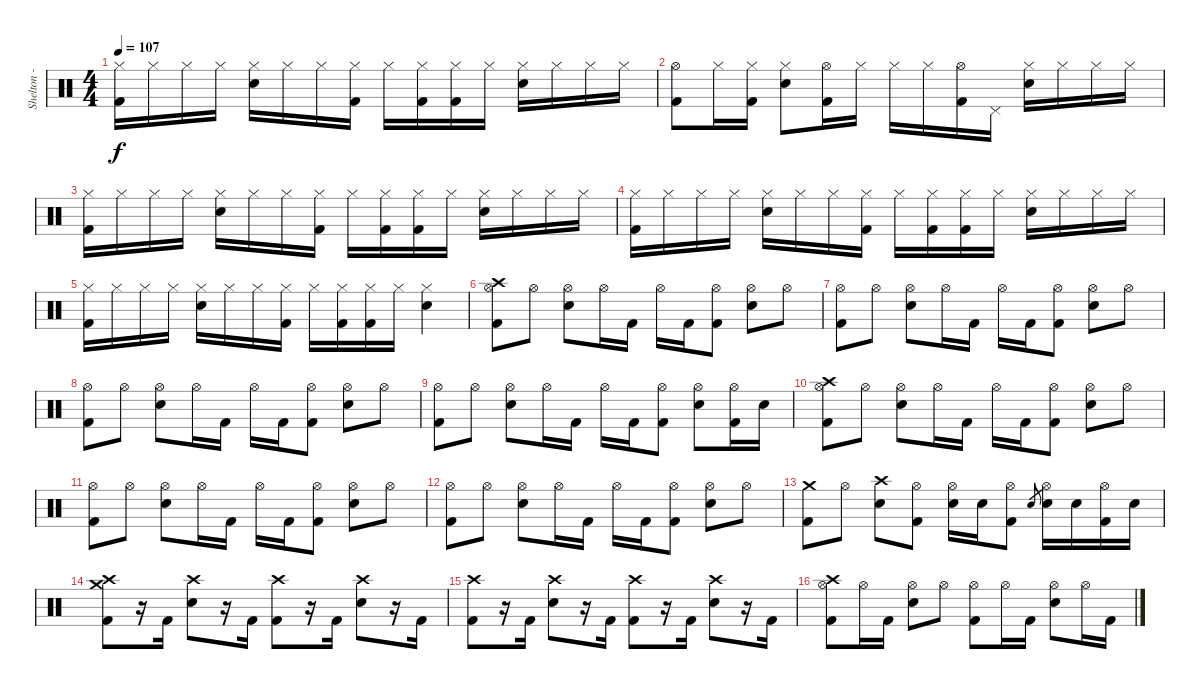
\track ("Shelton - Drums" "Shelton - ") {instrument percussion}
\staff {score}
\articulation defaults
\ts (4 4)
\tempo 107
\clef neutral
\ks c
("Hi-Hat (closed)" "Kick (hit) 2").16{dy f} "Hi-Hat (closed)".16 "Hi-Hat (closed)".16 "Hi-Hat (closed)".16 ("Hi-Hat (closed)" "Electric Snare (hit)").16 "Hi-Hat (closed)".16 "Hi-Hat (closed)".16 ("Hi-Hat (closed)" "Kick (hit) 2").16 "Hi-Hat (closed)".16 ("Hi-Hat (closed)" "Kick (hit) 2").16 ("Hi-Hat (closed)" "Kick (hit) 2").16 "Hi-Hat (closed)".16 ("Hi-Hat (closed)" "Electric Snare (hit)").16 "Hi-Hat (closed)".16 "Hi-Hat (closed)".16 "Hi-Hat (closed)".16 |
("Hi-Hat (open)" "Kick (hit) 2").8 "Hi-Hat (closed)".16 ("Hi-Hat (closed)" "Kick (hit) 2").16 ("Hi-Hat (closed)" "Electric Snare (hit)").8 ("Hi-Hat (open)" "Kick (hit) 2").16 "Hi-Hat (closed)".16 "Hi-Hat (closed)".16 "Hi-Hat (closed)".16 ("Hi-Hat (open)" "Kick (hit) 2").16 "Pedal Hi-Hat (hit)".16 ("Hi-Hat (closed)" "Electric Snare (hit)").16 "Hi-Hat (closed)".16 "Hi-Hat (closed)".16 "Hi-Hat (closed)".16 |
("Hi-Hat (closed)" "Kick (hit) 2").16 "Hi-Hat (closed)".16 "Hi-Hat (closed)".16 "Hi-Hat (closed)".16 ("Hi-Hat (closed)" "Electric Snare (hit)").16 "Hi-Hat (closed)".16 "Hi-Hat (closed)".16 ("Hi-Hat (closed)" "Kick (hit) 2").16 "Hi-Hat (closed)".16 ("Hi-Hat (closed)" "Kick (hit) 2").16 ("Hi-Hat (closed)" "Kick (hit) 2").16 "Hi-Hat (closed)".16 ("Hi-Hat (closed)" "Electric Snare (hit)").16 "Hi-Hat (closed)".16 "Hi-Hat (closed)".16 "Hi-Hat (closed)".16 |
("Hi-Hat (closed)" "Kick (hit) 2").16 "Hi-Hat (closed)".16 "Hi-Hat (closed)".16 "Hi-Hat (closed)".16 ("Hi-Hat (closed)" "Electric Snare (hit)").16 "Hi-Hat (closed)".16 "Hi-Hat (closed)".16 ("Hi-Hat (closed)" "Kick (hit) 2").16 "Hi-Hat (closed)".16 ("Hi-Hat (closed)" "Kick (hit) 2").16 ("Hi-Hat (closed)" "Kick (hit) 2").16 "Hi-Hat (closed)".16 ("Hi-Hat (closed)" "Electric Snare (hit)").16 "Hi-Hat (closed)".16 "Hi-Hat (closed)".16 "Hi-Hat (closed)".16 |
("Hi-Hat (closed)" "Kick (hit) 2").16 "Hi-Hat (closed)".16 "Hi-Hat (closed)".16 "Hi-Hat (closed)".16 ("Hi-Hat (closed)" "Electric Snare (hit)").16 "Hi-Hat (closed)".16 "Hi-Hat (closed)".16 ("Hi-Hat (closed)" "Kick (hit) 2").16 "Hi-Hat (closed)".16 ("Hi-Hat (closed)" "Kick (hit) 2").16 ("Hi-Hat (closed)" "Kick (hit) 2").16 "Hi-Hat (closed)".16 ("Hi-Hat (closed)" "Electric Snare (hit)").4 |
("Hi-Hat (open)" "Crash high (hit)" "Kick (hit) 2").8 "Hi-Hat (open)".8 ("Hi-Hat (open)" "Electric Snare (hit)").8 "Hi-Hat (open)".16 "Kick (hit) 2".16 "Hi-Hat (open)".16 "Kick (hit) 2".16 ("Hi-Hat (open)" "Kick (hit) 2").8 ("Hi-Hat (open)" "Electric Snare (hit)").8 "Hi-Hat (open)".8 |
("Hi-Hat (open)" "Kick (hit) 2").8 "Hi-Hat (open)".8 ("Hi-Hat (open)" "Electric Snare (hit)").8 "Hi-Hat (open)".16 "Kick (hit) 2".16 "Hi-Hat (open)".16 "Kick (hit) 2".16 ("Hi-Hat (open)" "Kick (hit) 2").8 ("Hi-Hat (open)" "Electric Snare (hit)").8 "Hi-Hat (open)".8 |
("Hi-Hat (open)" "Kick (hit) 2").8 "Hi-Hat (open)".8 ("Hi-Hat (open)" "Electric Snare (hit)").8 "Hi-Hat (open)".16 "Kick (hit) 2".16 "Hi-Hat (open)".16 "Kick (hit) 2".16 ("Hi-Hat (open)" "Kick (hit) 2").8 ("Hi-Hat (open)" "Electric Snare (hit)").8 "Hi-Hat (open)".8 |
("Hi-Hat (open)" "Kick (hit) 2").8 "Hi-Hat (open)".8 ("Hi-Hat (open)" "Electric Snare (hit)").8 "Hi-Hat (open)".16 "Kick (hit) 2".16 "Hi-Hat (open)".16 "Kick (hit) 2".16 ("Hi-Hat (open)" "Kick (hit) 2").8 ("Hi-Hat (open)" "Electric Snare (hit)").8 ("Hi-Hat (open)" "Kick (hit) 2").16 "Electric Snare (hit)".16 |
("Hi-Hat (open)" "Crash high (hit)" "Kick (hit) 2").8 "Hi-Hat (open)".8 ("Hi-Hat (open)" "Electric Snare (hit)").8 "Hi-Hat (open)".16 "Kick (hit) 2".16 "Hi-Hat (open)".16 "Kick (hit) 2".16 ("Hi-Hat (open)" "Kick (hit) 2").8 ("Hi-Hat (open)" "Electric Snare (hit)").8 "Hi-Hat (open)".8 |
("Hi-Hat (open)" "Kick (hit) 2").8 "Hi-Hat (open)".8 ("Hi-Hat (open)" "Electric Snare (hit)").8 "Hi-Hat (open)".16 "Kick (hit) 2".16 "Hi-Hat (open)".16 "Kick (hit) 2".16 ("Hi-Hat (open)" "Kick (hit) 2").8 ("Hi-Hat (open)" "Electric Snare (hit)").8 "Hi-Hat (open)".8 |
("Hi-Hat (open)" "Kick (hit) 2").8 "Hi-Hat (open)".8 ("Hi-Hat (open)" "Electric Snare (hit)").8 "Hi-Hat (open)".16 "Kick (hit) 2".16 "Hi-Hat (open)".16 "Kick (hit) 2".16 ("Hi-Hat (open)" "Kick (hit) 2").8 ("Hi-Hat (open)" "Electric Snare (hit)").8 "Hi-Hat (open)".8 |
("Crash medium (hit)" "Kick (hit) 2").8 "Hi-Hat (open)".8 ("Crash high (hit)" "Electric Snare (hit)").8 ("Hi-Hat (open)" "Kick (hit) 2").8 ("Hi-Hat (open)" "Electric Snare (hit)").16 "Electric Snare (hit)".16 ("Hi-Hat (open)" "Kick (hit) 2").8 "Electric Snare (hit)".8{gr} ("Hi-Hat (open)" "Electric Snare (hit)").16 "Electric Snare (hit)".16 ("Hi-Hat (open)" "Kick (hit) 2").16 "Electric Snare (hit)".16 |
("Crash high (hit)" "Crash medium (hit)" "Kick (hit) 2").8 r.16 "Kick (hit) 2".16 ("Crash high (hit)" "Electric Snare (hit)").8 r.16 "Kick (hit) 2".16 ("Crash high (hit)" "Kick (hit) 2").8 r.16 "Kick (hit) 2".16 ("Crash high (hit)" "Electric Snare (hit)").8 r.16 "Kick (hit) 2".16 |
("Crash high (hit)" "Kick (hit) 2").8 r.16 "Kick (hit) 2".16 ("Crash high (hit)" "Electric Snare (hit)").8 r.16 "Kick (hit) 2".16 ("Crash high (hit)" "Kick (hit) 2").8 r.16 "Kick (hit) 2".16 ("Crash high (hit)" "Electric Snare (hit)").8 r.16 "Kick (hit) 2".16 |
("Hi-Hat (open)" "Crash high (hit)" "Kick (hit) 2").8 "Hi-Hat (open)".16 "Kick (hit) 2".16 ("Hi-Hat (open)" "Electric Snare (hit)").8 "Hi-Hat (open)".8 ("Hi-Hat (open)" "Kick (hit) 2").8 "Hi-Hat (open)".16 "Kick (hit) 2".16 ("Hi-Hat (open)" "Electric Snare (hit)").8 "Hi-Hat (open)".16 "Kick (hit) 2".16
